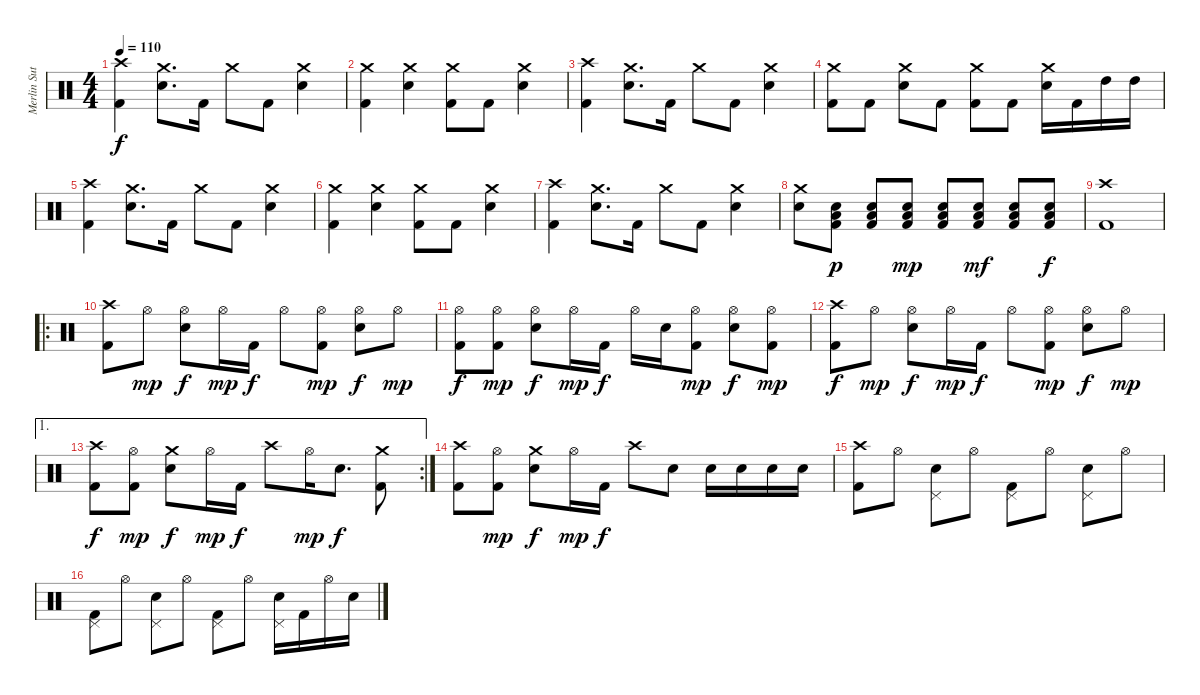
\track ("Merlin Sutter" "Merlin Sut") {instrument percussion}
\staff {score}
\articulation defaults
\ts (4 4)
\tempo 110
\clef neutral
\ks c
("Crash high (hit)" "Kick (hit) 2").4{dy f} ("Crash medium (hit)" "Snare (hit) 2").8{d} "Kick (hit) 2".16 "Crash medium (hit)".8 "Kick (hit) 2".8 ("Crash medium (hit)" "Snare (hit) 2").4 |
("Crash medium (hit)" "Kick (hit) 2").4 ("Crash medium (hit)" "Snare (hit) 2").4 ("Crash medium (hit)" "Kick (hit) 2").8 "Kick (hit) 2".8 ("Crash medium (hit)" "Snare (hit) 2").4 |
("Crash high (hit)" "Kick (hit) 2").4 ("Crash medium (hit)" "Snare (hit) 2").8{d} "Kick (hit) 2".16 "Crash medium (hit)".8 "Kick (hit) 2".8 ("Crash medium (hit)" "Snare (hit) 2").4 |
("Crash medium (hit)" "Kick (hit) 2").8 "Kick (hit) 2".8 ("Crash medium (hit)" "Snare (hit) 2").8 "Kick (hit) 2".8 ("Crash medium (hit)" "Kick (hit) 2").8 "Kick (hit) 2".8 ("Crash medium (hit)" "Snare (hit) 2").16 "Kick (hit) 2".16 "High Tom (hit)".16 "High Tom (hit)".16 |
("Crash high (hit)" "Kick (hit) 2").4 ("Crash medium (hit)" "Snare (hit) 2").8{d} "Kick (hit) 2".16 "Crash medium (hit)".8 "Kick (hit) 2".8 ("Crash medium (hit)" "Snare (hit) 2").4 |
("Crash medium (hit)" "Kick (hit) 2").4 ("Crash medium (hit)" "Snare (hit) 2").4 ("Crash medium (hit)" "Kick (hit) 2").8 "Kick (hit) 2".8 ("Crash medium (hit)" "Snare (hit) 2").4 |
("Crash high (hit)" "Kick (hit) 2").4 ("Crash medium (hit)" "Snare (hit) 2").8{d} "Kick (hit) 2".16 "Crash medium (hit)".8 "Kick (hit) 2".8 ("Crash medium (hit)" "Snare (hit) 2").4 |
("Crash medium (hit)" "Snare (hit) 2").8 ("Low Tom (hit)" "Snare (hit) 2" "Kick (hit) 2").8{dy p} ("Low Tom (hit)" "Snare (hit) 2" "Kick (hit) 2").8 ("Low Tom (hit)" "Snare (hit) 2" "Kick (hit) 2").8{dy mp} ("Low Tom (hit)" "Snare (hit) 2" "Kick (hit) 2").8 ("Low Tom (hit)" "Snare (hit) 2" "Kick (hit) 2").8{dy mf} ("Low Tom (hit)" "Snare (hit) 2" "Kick (hit) 2").8 ("Low Tom (hit)" "Snare (hit) 2" "Kick (hit) 2").8{dy f} |
("Crash high (hit)" "Kick (hit) 2").1 |
\ro
("Crash high (hit)" "Kick (hit) 2").8 "Hi-Hat (open)".8{dy mp} ("Hi-Hat (open)" "Snare (hit) 2").8{dy f} "Hi-Hat (open)".16{dy mp} "Kick (hit) 2".16{dy f} "Hi-Hat (open)".8 ("Hi-Hat (open)" "Kick (hit) 2").8{dy mp} ("Hi-Hat (open)" "Snare (hit) 2").8{dy f} "Hi-Hat (open)".8{dy mp} |
("Hi-Hat (open)" "Kick (hit) 2").8{dy f} ("Hi-Hat (open)" "Kick (hit) 2").8{dy mp} ("Hi-Hat (open)" "Snare (hit) 2").8{dy f} "Hi-Hat (open)".16{dy mp} "Kick (hit) 2".16{dy f} "Hi-Hat (open)".16 "Snare (hit) 2".16 ("Hi-Hat (open)" "Kick (hit) 2").8{dy mp} ("Hi-Hat (open)" "Snare (hit) 2").8{dy f} ("Hi-Hat (open)" "Kick (hit) 2").8{dy mp} |
("Crash high (hit)" "Kick (hit) 2").8{dy f} "Hi-Hat (open)".8{dy mp} ("Hi-Hat (open)" "Snare (hit) 2").8{dy f} "Hi-Hat (open)".16{dy mp} "Kick (hit) 2".16{dy f} "Hi-Hat (open)".8 ("Hi-Hat (open)" "Kick (hit) 2").8{dy mp} ("Hi-Hat (open)" "Snare (hit) 2").8{dy f} "Hi-Hat (open)".8{dy mp} |
\ae 1
\rc 2
("Crash high (hit)" "Kick (hit) 2").8{dy f} ("Hi-Hat (open)" "Kick (hit) 2").8{dy mp} ("Crash medium (hit)" "Snare (hit) 2").8{dy f} "Hi-Hat (open)".16{dy mp} "Kick (hit) 2".16{dy f} "Crash high (hit)".8 "Hi-Hat (open)".16{dy mp} "Snare (hit) 2".8{d dy f} ("Crash medium (hit)" "Kick (hit) 2").8 |
("Crash high (hit)" "Kick (hit) 2").8 ("Hi-Hat (open)" "Kick (hit) 2").8{dy mp} ("Crash medium (hit)" "Snare (hit) 2").8{dy f} "Hi-Hat (open)".16{dy mp} "Kick (hit) 2".16{dy f} "Crash high (hit)".8 "Snare (hit) 2".8 "Snare (hit) 2".16 "Snare (hit) 2".16 "Snare (hit) 2".16 "Snare (hit) 2".16 |
("Crash high (hit)" "Kick (hit) 2").8 "Hi-Hat (open)".8 ("Pedal Hi-Hat (hit)" "Snare (hit) 2").8 "Hi-Hat (open)".8 ("Pedal Hi-Hat (hit)" "Kick (hit) 2").8 "Hi-Hat (open)".8 ("Pedal Hi-Hat (hit)" "Snare (hit) 2").8 "Hi-Hat (open)".8 |
("Pedal Hi-Hat (hit)" "Kick (hit) 2").8 "Hi-Hat (open)".8 ("Pedal Hi-Hat (hit)" "Snare (hit) 2").8 "Hi-Hat (open)".8 ("Pedal Hi-Hat (hit)" "Kick (hit) 2").8 "Hi-Hat (open)".8 ("Pedal Hi-Hat (hit)" "Snare (hit) 2").16 "Kick (hit) 2".16 "Hi-Hat (open)".16 "Snare (hit) 2".16
